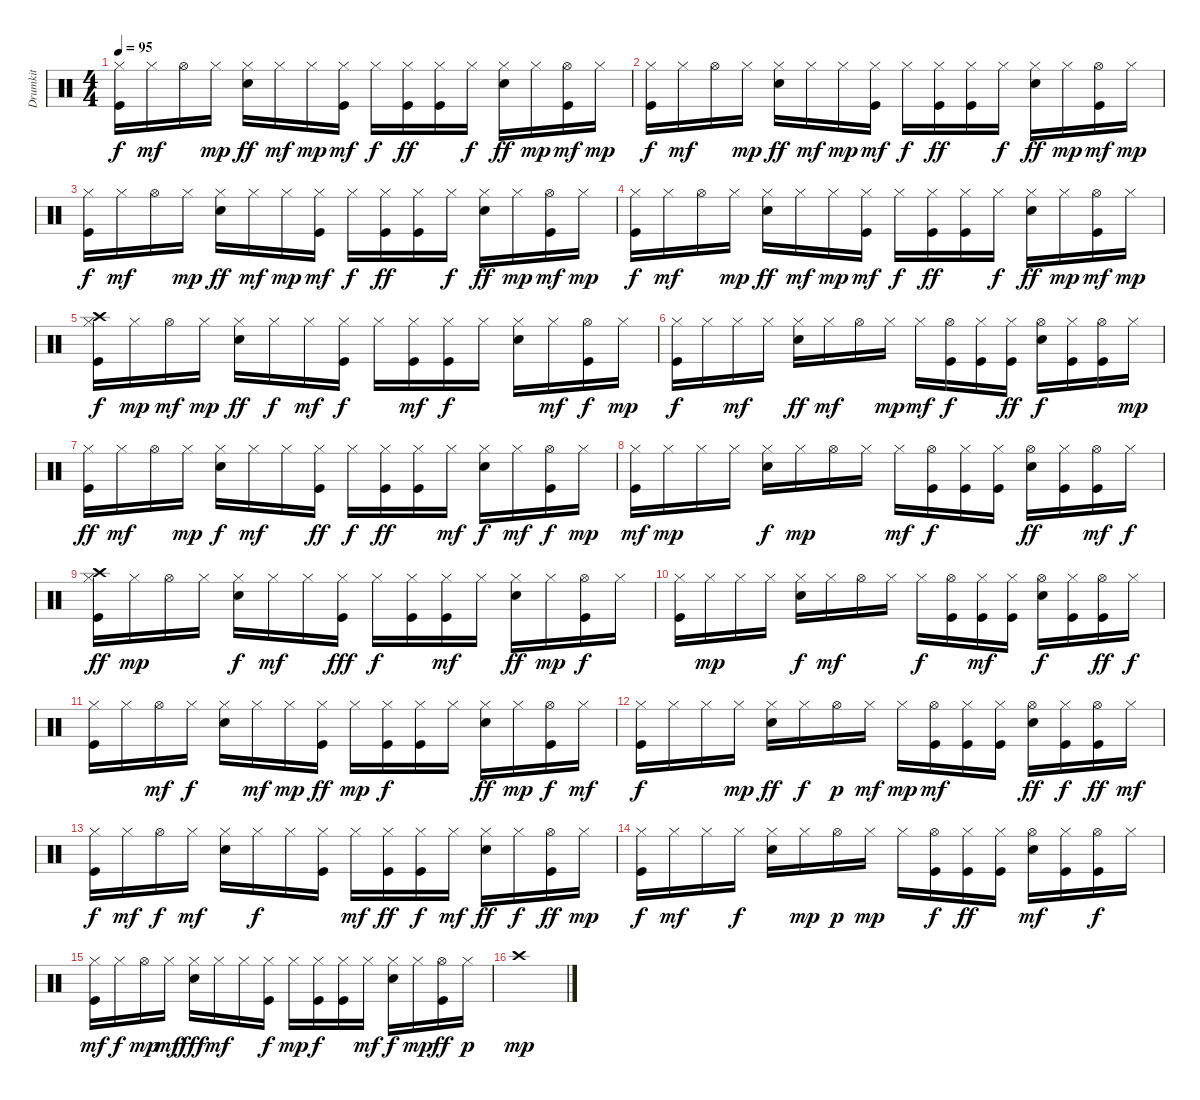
\track ("Drumkit" "Drumkit") {instrument percussion}
\staff {score}
\articulation defaults
\ts (4 4)
\tempo 95
\clef neutral
\ks c
("Kick (hit)" "Hi-Hat (closed)").16{dy f} "Hi-Hat (closed)".16{dy mf} "Hi-Hat (open)".16 "Hi-Hat (closed)".16{dy mp} ("Snare (hit) 2" "Hi-Hat (closed)").16{dy ff} "Hi-Hat (closed)".16{dy mf} "Hi-Hat (closed)".16{dy mp} ("Kick (hit)" "Hi-Hat (closed)").16{dy mf} "Hi-Hat (closed)".16{dy f} ("Kick (hit)" "Hi-Hat (closed)").16{dy ff} ("Kick (hit)" "Hi-Hat (closed)").16 "Hi-Hat (closed)".16{dy f} ("Snare (hit) 2" "Hi-Hat (closed)").16{dy ff} "Hi-Hat (closed)".16{dy mp} ("Kick (hit)" "Hi-Hat (open)").16{dy mf} "Hi-Hat (closed)".16{dy mp} |
("Kick (hit)" "Hi-Hat (closed)").16{dy f} "Hi-Hat (closed)".16{dy mf} "Hi-Hat (open)".16 "Hi-Hat (closed)".16{dy mp} ("Snare (hit) 2" "Hi-Hat (closed)").16{dy ff} "Hi-Hat (closed)".16{dy mf} "Hi-Hat (closed)".16{dy mp} ("Kick (hit)" "Hi-Hat (closed)").16{dy mf} "Hi-Hat (closed)".16{dy f} ("Kick (hit)" "Hi-Hat (closed)").16{dy ff} ("Kick (hit)" "Hi-Hat (closed)").16 "Hi-Hat (closed)".16{dy f} ("Snare (hit) 2" "Hi-Hat (closed)").16{dy ff} "Hi-Hat (closed)".16{dy mp} ("Kick (hit)" "Hi-Hat (open)").16{dy mf} "Hi-Hat (closed)".16{dy mp} |
("Kick (hit)" "Hi-Hat (closed)").16{dy f} "Hi-Hat (closed)".16{dy mf} "Hi-Hat (open)".16 "Hi-Hat (closed)".16{dy mp} ("Snare (hit) 2" "Hi-Hat (closed)").16{dy ff} "Hi-Hat (closed)".16{dy mf} "Hi-Hat (closed)".16{dy mp} ("Kick (hit)" "Hi-Hat (closed)").16{dy mf} "Hi-Hat (closed)".16{dy f} ("Kick (hit)" "Hi-Hat (closed)").16{dy ff} ("Kick (hit)" "Hi-Hat (closed)").16 "Hi-Hat (closed)".16{dy f} ("Snare (hit) 2" "Hi-Hat (closed)").16{dy ff} "Hi-Hat (closed)".16{dy mp} ("Kick (hit)" "Hi-Hat (open)").16{dy mf} "Hi-Hat (closed)".16{dy mp} |
("Kick (hit)" "Hi-Hat (closed)").16{dy f} "Hi-Hat (closed)".16{dy mf} "Hi-Hat (open)".16 "Hi-Hat (closed)".16{dy mp} ("Snare (hit) 2" "Hi-Hat (closed)").16{dy ff} "Hi-Hat (closed)".16{dy mf} "Hi-Hat (closed)".16{dy mp} ("Kick (hit)" "Hi-Hat (closed)").16{dy mf} "Hi-Hat (closed)".16{dy f} ("Kick (hit)" "Hi-Hat (closed)").16{dy ff} ("Kick (hit)" "Hi-Hat (closed)").16 "Hi-Hat (closed)".16{dy f} ("Snare (hit) 2" "Hi-Hat (closed)").16{dy ff} "Hi-Hat (closed)".16{dy mp} ("Kick (hit)" "Hi-Hat (open)").16{dy mf} "Hi-Hat (closed)".16{dy mp} |
("Kick (hit)" "Hi-Hat (closed)" "Crash high (hit)").16{dy f} "Hi-Hat (closed)".16{dy mp} "Hi-Hat (open)".16{dy mf} "Hi-Hat (closed)".16{dy mp} ("Snare (hit) 2" "Hi-Hat (closed)").16{dy ff} "Hi-Hat (closed)".16{dy f} "Hi-Hat (closed)".16{dy mf} ("Kick (hit)" "Hi-Hat (closed)").16{dy f} "Hi-Hat (closed)".16 ("Kick (hit)" "Hi-Hat (closed)").16{dy mf} ("Kick (hit)" "Hi-Hat (closed)").16{dy f} "Hi-Hat (closed)".16 ("Snare (hit) 2" "Hi-Hat (closed)").16 "Hi-Hat (closed)".16{dy mf} ("Kick (hit)" "Hi-Hat (open)").16{dy f} "Hi-Hat (closed)".16{dy mp} |
("Kick (hit)" "Hi-Hat (closed)").16{dy f} "Hi-Hat (closed)".16 "Hi-Hat (closed)".16{dy mf} "Hi-Hat (closed)".16 ("Snare (hit) 2" "Hi-Hat (closed)").16{dy ff} "Hi-Hat (closed)".16{dy mf} "Hi-Hat (open)".16 "Hi-Hat (closed)".16{dy mp} "Hi-Hat (closed)".16{dy mf} ("Kick (hit)" "Hi-Hat (open)").16{dy f} ("Kick (hit)" "Hi-Hat (closed)").16 ("Kick (hit)" "Hi-Hat (closed)").16{dy ff} ("Snare (hit) 2" "Hi-Hat (open)").16{dy f} ("Kick (hit)" "Hi-Hat (closed)").16 ("Kick (hit)" "Hi-Hat (open)").16 "Hi-Hat (closed)".16{dy mp} |
("Kick (hit)" "Hi-Hat (closed)").16{dy ff} "Hi-Hat (closed)".16{dy mf} "Hi-Hat (open)".16 "Hi-Hat (closed)".16{dy mp} ("Snare (hit) 2" "Hi-Hat (closed)").16{dy f} "Hi-Hat (closed)".16{dy mf} "Hi-Hat (closed)".16 ("Kick (hit)" "Hi-Hat (closed)").16{dy ff} "Hi-Hat (closed)".16{dy f} ("Kick (hit)" "Hi-Hat (closed)").16{dy ff} ("Kick (hit)" "Hi-Hat (closed)").16 "Hi-Hat (closed)".16{dy mf} ("Snare (hit) 2" "Hi-Hat (closed)").16{dy f} "Hi-Hat (closed)".16{dy mf} ("Kick (hit)" "Hi-Hat (open)").16{dy f} "Hi-Hat (closed)".16{dy mp} |
("Kick (hit)" "Hi-Hat (closed)").16{dy mf} "Hi-Hat (closed)".16{dy mp} "Hi-Hat (closed)".16 "Hi-Hat (closed)".16 ("Snare (hit) 2" "Hi-Hat (closed)").16{dy f} "Hi-Hat (closed)".16{dy mp} "Hi-Hat (open)".16 "Hi-Hat (closed)".16 "Hi-Hat (closed)".16{dy mf} ("Kick (hit)" "Hi-Hat (open)").16{dy f} ("Kick (hit)" "Hi-Hat (closed)").16 ("Kick (hit)" "Hi-Hat (closed)").16 ("Snare (hit) 2" "Hi-Hat (open)").16{dy ff} ("Kick (hit)" "Hi-Hat (closed)").16 ("Kick (hit)" "Hi-Hat (open)").16{dy mf} "Hi-Hat (closed)".16{dy f} |
("Kick (hit)" "Hi-Hat (closed)" "Crash high (hit)").16{dy ff} "Hi-Hat (closed)".16{dy mp} "Hi-Hat (open)".16 "Hi-Hat (closed)".16 ("Snare (hit) 2" "Hi-Hat (closed)").16{dy f} "Hi-Hat (closed)".16{dy mf} "Hi-Hat (closed)".16 ("Kick (hit)" "Hi-Hat (closed)").16{dy fff} "Hi-Hat (closed)".16{dy f} ("Kick (hit)" "Hi-Hat (closed)").16 ("Kick (hit)" "Hi-Hat (closed)").16{dy mf} "Hi-Hat (closed)".16 ("Snare (hit) 2" "Hi-Hat (closed)").16{dy ff} "Hi-Hat (closed)".16{dy mp} ("Kick (hit)" "Hi-Hat (open)").16{dy f} "Hi-Hat (closed)".16 |
("Kick (hit)" "Hi-Hat (closed)").16 "Hi-Hat (closed)".16{dy mp} "Hi-Hat (closed)".16 "Hi-Hat (closed)".16 ("Snare (hit) 2" "Hi-Hat (closed)").16{dy f} "Hi-Hat (closed)".16{dy mf} "Hi-Hat (open)".16 "Hi-Hat (closed)".16 "Hi-Hat (closed)".16{dy f} ("Kick (hit)" "Hi-Hat (open)").16 ("Kick (hit)" "Hi-Hat (closed)").16{dy mf} ("Kick (hit)" "Hi-Hat (closed)").16 ("Snare (hit) 2" "Hi-Hat (open)").16{dy f} ("Kick (hit)" "Hi-Hat (closed)").16 ("Kick (hit)" "Hi-Hat (open)").16{dy ff} "Hi-Hat (closed)".16{dy f} |
("Kick (hit)" "Hi-Hat (closed)").16 "Hi-Hat (closed)".16 "Hi-Hat (open)".16{dy mf} "Hi-Hat (closed)".16{dy f} ("Snare (hit) 2" "Hi-Hat (closed)").16 "Hi-Hat (closed)".16{dy mf} "Hi-Hat (closed)".16{dy mp} ("Kick (hit)" "Hi-Hat (closed)").16{dy ff} "Hi-Hat (closed)".16{dy mp} ("Kick (hit)" "Hi-Hat (closed)").16{dy f} ("Kick (hit)" "Hi-Hat (closed)").16 "Hi-Hat (closed)".16 ("Snare (hit) 2" "Hi-Hat (closed)").16{dy ff} "Hi-Hat (closed)".16{dy mp} ("Kick (hit)" "Hi-Hat (open)").16{dy f} "Hi-Hat (closed)".16{dy mf} |
("Kick (hit)" "Hi-Hat (closed)").16{dy f} "Hi-Hat (closed)".16 "Hi-Hat (closed)".16 "Hi-Hat (closed)".16{dy mp} ("Snare (hit) 2" "Hi-Hat (closed)").16{dy ff} "Hi-Hat (closed)".16{dy f} "Hi-Hat (open)".16{dy p} "Hi-Hat (closed)".16{dy mf} "Hi-Hat (closed)".16{dy mp} ("Kick (hit)" "Hi-Hat (open)").16{dy mf} ("Kick (hit)" "Hi-Hat (closed)").16 ("Kick (hit)" "Hi-Hat (closed)").16 ("Snare (hit) 2" "Hi-Hat (open)").16{dy ff} ("Kick (hit)" "Hi-Hat (closed)").16{dy f} ("Kick (hit)" "Hi-Hat (open)").16{dy ff} "Hi-Hat (closed)".16{dy mf} |
("Kick (hit)" "Hi-Hat (closed)").16{dy f} "Hi-Hat (closed)".16{dy mf} "Hi-Hat (open)".16{dy f} "Hi-Hat (closed)".16{dy mf} ("Snare (hit) 2" "Hi-Hat (closed)").16 "Hi-Hat (closed)".16{dy f} "Hi-Hat (closed)".16 ("Kick (hit)" "Hi-Hat (closed)").16 "Hi-Hat (closed)".16{dy mf} ("Kick (hit)" "Hi-Hat (closed)").16{dy ff} ("Kick (hit)" "Hi-Hat (closed)").16{dy f} "Hi-Hat (closed)".16{dy mf} ("Snare (hit) 2" "Hi-Hat (closed)").16{dy ff} "Hi-Hat (closed)".16{dy f} ("Kick (hit)" "Hi-Hat (open)").16{dy ff} "Hi-Hat (closed)".16{dy mp} |
("Kick (hit)" "Hi-Hat (closed)").16{dy f} "Hi-Hat (closed)".16{dy mf} "Hi-Hat (closed)".16 "Hi-Hat (closed)".16{dy f} ("Snare (hit) 2" "Hi-Hat (closed)").16 "Hi-Hat (closed)".16{dy mp} "Hi-Hat (open)".16{dy p} "Hi-Hat (closed)".16{dy mp} "Hi-Hat (closed)".16 ("Kick (hit)" "Hi-Hat (open)").16{dy f} ("Kick (hit)" "Hi-Hat (closed)").16{dy ff} ("Kick (hit)" "Hi-Hat (closed)").16 ("Snare (hit) 2" "Hi-Hat (open)").16{dy mf} ("Kick (hit)" "Hi-Hat (closed)").16 ("Kick (hit)" "Hi-Hat (open)").16{dy f} "Hi-Hat (closed)".16 |
("Kick (hit)" "Hi-Hat (closed)").16{dy mf} "Hi-Hat (closed)".16{dy f} "Hi-Hat (open)".16{dy mp} "Hi-Hat (closed)".16{dy mf} ("Snare (hit) 2" "Hi-Hat (closed)").16{dy fff} "Hi-Hat (closed)".16{dy mf} "Hi-Hat (closed)".16 ("Kick (hit)" "Hi-Hat (closed)").16{dy f} "Hi-Hat (closed)".16{dy mp} ("Kick (hit)" "Hi-Hat (closed)").16{dy f} ("Kick (hit)" "Hi-Hat (closed)").16 "Hi-Hat (closed)".16{dy mf} ("Snare (hit) 2" "Hi-Hat (closed)").16{dy f} "Hi-Hat (closed)".16{dy mp} ("Kick (hit)" "Hi-Hat (open)").16{dy ff} "Hi-Hat (closed)".16{dy p} |
"Crash high (hit)".1{dy mp}
